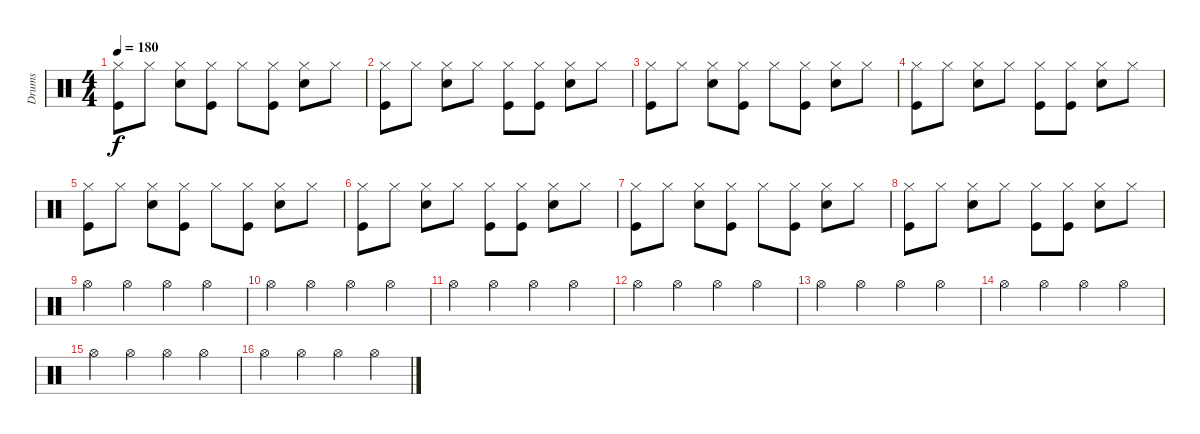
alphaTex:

\track ("Drums" "Drums") {instrument percussion}
\staff {score}
\articulation defaults
\ts (4 4)
\tempo 180
\clef neutral
\ks c
("Hi-Hat (closed)" "Kick (hit)").8{dy f} "Hi-Hat (closed)".8 ("Hi-Hat (closed)" "Snare (hit) 2").8 ("Hi-Hat (closed)" "Kick (hit)").8 "Hi-Hat (closed)".8 ("Hi-Hat (closed)" "Kick (hit)").8 ("Hi-Hat (closed)" "Snare (hit) 2").8 "Hi-Hat (closed)".8 |
("Hi-Hat (closed)" "Kick (hit)").8 "Hi-Hat (closed)".8 ("Hi-Hat (closed)" "Snare (hit) 2").8 "Hi-Hat (closed)".8 ("Hi-Hat (closed)" "Kick (hit)").8 ("Hi-Hat (closed)" "Kick (hit)").8 ("Hi-Hat (closed)" "Snare (hit) 2").8 "Hi-Hat (closed)".8 |
("Hi-Hat (closed)" "Kick (hit)").8 "Hi-Hat (closed)".8 ("Hi-Hat (closed)" "Snare (hit) 2").8 ("Hi-Hat (closed)" "Kick (hit)").8 "Hi-Hat (closed)".8 ("Hi-Hat (closed)" "Kick (hit)").8 ("Hi-Hat (closed)" "Snare (hit) 2").8 "Hi-Hat (closed)".8 |
("Hi-Hat (closed)" "Kick (hit)").8 "Hi-Hat (closed)".8 ("Hi-Hat (closed)" "Snare (hit) 2").8 "Hi-Hat (closed)".8 ("Hi-Hat (closed)" "Kick (hit)").8 ("Hi-Hat (closed)" "Kick (hit)").8 ("Hi-Hat (closed)" "Snare (hit) 2").8 "Hi-Hat (closed)".8 |
("Hi-Hat (closed)" "Kick (hit)").8 "Hi-Hat (closed)".8 ("Hi-Hat (closed)" "Snare (hit) 2").8 ("Hi-Hat (closed)" "Kick (hit)").8 "Hi-Hat (closed)".8 ("Hi-Hat (closed)" "Kick (hit)").8 ("Hi-Hat (closed)" "Snare (hit) 2").8 "Hi-Hat (closed)".8 |
("Hi-Hat (closed)" "Kick (hit)").8 "Hi-Hat (closed)".8 ("Hi-Hat (closed)" "Snare (hit) 2").8 "Hi-Hat (closed)".8 ("Hi-Hat (closed)" "Kick (hit)").8 ("Hi-Hat (closed)" "Kick (hit)").8 ("Hi-Hat (closed)" "Snare (hit) 2").8 "Hi-Hat (closed)".8 |
("Hi-Hat (closed)" "Kick (hit)").8 "Hi-Hat (closed)".8 ("Hi-Hat (closed)" "Snare (hit) 2").8 ("Hi-Hat (closed)" "Kick (hit)").8 "Hi-Hat (closed)".8 ("Hi-Hat (closed)" "Kick (hit)").8 ("Hi-Hat (closed)" "Snare (hit) 2").8 "Hi-Hat (closed)".8 |
("Hi-Hat (closed)" "Kick (hit)").8 "Hi-Hat (closed)".8 ("Hi-Hat (closed)" "Snare (hit) 2").8 "Hi-Hat (closed)".8 ("Hi-Hat (closed)" "Kick (hit)").8 ("Hi-Hat (closed)" "Kick (hit)").8 ("Hi-Hat (closed)" "Snare (hit) 2").8 "Hi-Hat (closed)".8 |
"Hi-Hat (open)".4 "Hi-Hat (open)".4 "Hi-Hat (open)".4 "Hi-Hat (open)".4 |
"Hi-Hat (open)".4 "Hi-Hat (open)".4 "Hi-Hat (open)".4 "Hi-Hat (open)".4 |
"Hi-Hat (open)".4 "Hi-Hat (open)".4 "Hi-Hat (open)".4 "Hi-Hat (open)".4 |
"Hi-Hat (open)".4 "Hi-Hat (open)".4 "Hi-Hat (open)".4 "Hi-Hat (open)".4 |
"Hi-Hat (open)".4 "Hi-Hat (open)".4 "Hi-Hat (open)".4 "Hi-Hat (open)".4 |
"Hi-Hat (open)".4 "Hi-Hat (open)".4 "Hi-Hat (open)".4 "Hi-Hat (open)".4 |
"Hi-Hat (open)".4 "Hi-Hat (open)".4 "Hi-Hat (open)".4 "Hi-Hat (open)".4 |
"Hi-Hat (open)".4 "Hi-Hat (open)".4 "Hi-Hat (open)".4 "Hi-Hat (open)".4
